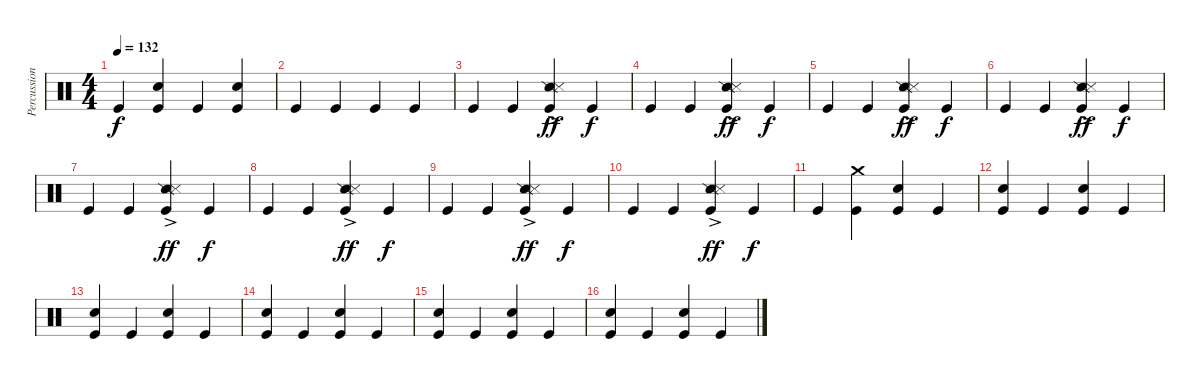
\track ("Percussions" "Percussion") {instrument percussion}
\staff {score}
\articulation defaults
\ts (4 4)
\tempo 132
\clef neutral
\ks c "Kick (hit)".4{dy f}
("Snare (hit) 2" "Kick (hit)").4 "Kick (hit)".4 ("Snare (hit) 2" "Kick (hit)").4 |
"Kick (hit)".4 "Kick (hit)".4 "Kick (hit)".4 "Kick (hit)".4 |
"Kick (hit)".4 "Kick (hit)".4 ("Snare (side stick) 2"{ac} "Snare (side stick) 3"{ac} "Kick (hit)").4{dy ff} "Kick (hit)".4{dy f} |
"Kick (hit)".4 "Kick (hit)".4 ("Snare (side stick) 2"{ac} "Snare (side stick) 3"{ac} "Kick (hit)").4{dy ff} "Kick (hit)".4{dy f} |
"Kick (hit)".4 "Kick (hit)".4 ("Snare (side stick) 2"{ac} "Snare (side stick) 3"{ac} "Kick (hit)").4{dy ff} "Kick (hit)".4{dy f} |
"Kick (hit)".4 "Kick (hit)".4 ("Snare (side stick) 2"{ac} "Snare (side stick) 3"{ac} "Kick (hit)").4{dy ff} "Kick (hit)".4{dy f} |
"Kick (hit)".4 "Kick (hit)".4 ("Snare (side stick) 2"{ac} "Snare (side stick) 3"{ac} "Kick (hit)").4{dy ff} "Kick (hit)".4{dy f} |
"Kick (hit)".4 "Kick (hit)".4 ("Snare (side stick) 2"{ac} "Snare (side stick) 3"{ac} "Kick (hit)").4{dy ff} "Kick (hit)".4{dy f} |
"Kick (hit)".4 "Kick (hit)".4 ("Snare (side stick) 2"{ac} "Snare (side stick) 3"{ac} "Kick (hit)").4{dy ff} "Kick (hit)".4{dy f} |
"Kick (hit)".4 "Kick (hit)".4 ("Snare (side stick) 2"{ac} "Snare (side stick) 3"{ac} "Kick (hit)").4{dy ff} "Kick (hit)".4{dy f} |
"Kick (hit)".4 ("Crash medium (hit)" "Kick (hit)").4 ("Snare (hit) 2" "Kick (hit)").4 "Kick (hit)".4 |
("Snare (hit) 2" "Kick (hit)").4 "Kick (hit)".4 ("Snare (hit) 2" "Kick (hit)").4 "Kick (hit)".4 |
("Snare (hit) 2" "Kick (hit)").4 "Kick (hit)".4 ("Snare (hit) 2" "Kick (hit)").4 "Kick (hit)".4 |
("Snare (hit) 2" "Kick (hit)").4 "Kick (hit)".4 ("Snare (hit) 2" "Kick (hit)").4 "Kick (hit)".4 |
("Snare (hit) 2" "Kick (hit)").4 "Kick (hit)".4 ("Snare (hit) 2" "Kick (hit)").4 "Kick (hit)".4 |
("Snare (hit) 2" "Kick (hit)").4 "Kick (hit)".4 ("Snare (hit) 2" "Kick (hit)").4 "Kick (hit)".4
